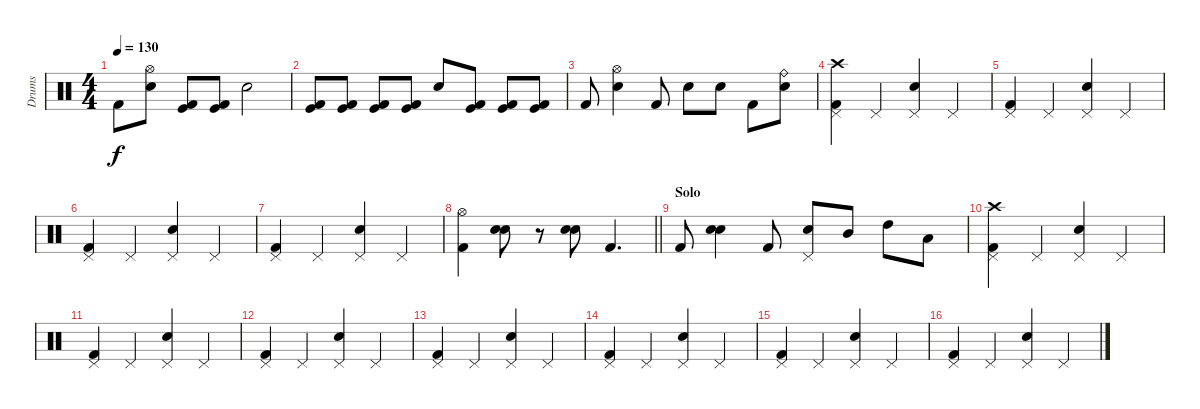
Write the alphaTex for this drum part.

\track ("Drums" "Drums") {instrument percussion}
\staff {score}
\articulation defaults
\ts (4 4)
\tempo 130
\clef neutral
\ks c "Kick (hit) 2".8{dy f}
("Snare (hit) 2" "Hi-Hat (open)").8 ("Kick (hit) 2" "Kick (hit)").8 ("Kick (hit) 2" "Kick (hit)").8 "Snare (hit) 2".2 |
("Kick (hit) 2" "Kick (hit)").8 ("Kick (hit) 2" "Kick (hit)").8 ("Kick (hit) 2" "Kick (hit)").8 ("Kick (hit) 2" "Kick (hit)").8 "Snare (hit) 2".8 ("Kick (hit) 2" "Kick (hit)").8 ("Kick (hit) 2" "Kick (hit)").8 ("Kick (hit) 2" "Kick (hit)").8 |
"Kick (hit) 2".8 ("Snare (hit) 2" "Hi-Hat (open)").4 "Kick (hit) 2".8 "Snare (hit) 2".8 "Snare (hit) 2".8 "Kick (hit) 2".8 ("Snare (hit) 2" "Ride (bell)").8 |
("Pedal Hi-Hat (hit)" "Crash high (hit)" "Kick (hit) 2").4 "Pedal Hi-Hat (hit)".4 ("Pedal Hi-Hat (hit)" "Snare (hit) 2").4 "Pedal Hi-Hat (hit)".4 |
("Pedal Hi-Hat (hit)" "Kick (hit) 2").4 "Pedal Hi-Hat (hit)".4 ("Pedal Hi-Hat (hit)" "Snare (hit) 2").4 "Pedal Hi-Hat (hit)".4 |
("Pedal Hi-Hat (hit)" "Kick (hit) 2").4 "Pedal Hi-Hat (hit)".4 ("Pedal Hi-Hat (hit)" "Snare (hit) 2").4 "Pedal Hi-Hat (hit)".4 |
("Pedal Hi-Hat (hit)" "Kick (hit) 2").4 "Pedal Hi-Hat (hit)".4 ("Pedal Hi-Hat (hit)" "Snare (hit) 2").4 "Pedal Hi-Hat (hit)".4 |
\barLineRight lightlight
("Hi-Hat (open)" "Kick (hit) 2").4 ("Electric Snare (hit)" "Snare (hit) 2").8 r.8 ("Electric Snare (hit)" "Snare (hit) 2").8 "Kick (hit) 2".4{d} |
\section ("" "Solo")
"Kick (hit) 2".8 ("Electric Snare (hit)" "Snare (hit) 2").4 "Kick (hit) 2".8 ("Pedal Hi-Hat (hit)" "Snare (hit) 2").8 "Mid Tom (hit)".8 "High Tom (hit)".8 "Low Tom (hit)".8 |
("Pedal Hi-Hat (hit)" "Crash high (hit)" "Kick (hit) 2").4 "Pedal Hi-Hat (hit)".4 ("Pedal Hi-Hat (hit)" "Snare (hit) 2").4 "Pedal Hi-Hat (hit)".4 |
("Pedal Hi-Hat (hit)" "Kick (hit) 2").4 "Pedal Hi-Hat (hit)".4 ("Pedal Hi-Hat (hit)" "Snare (hit) 2").4 "Pedal Hi-Hat (hit)".4 |
("Pedal Hi-Hat (hit)" "Kick (hit) 2").4 "Pedal Hi-Hat (hit)".4 ("Pedal Hi-Hat (hit)" "Snare (hit) 2").4 "Pedal Hi-Hat (hit)".4 |
("Pedal Hi-Hat (hit)" "Kick (hit) 2").4 "Pedal Hi-Hat (hit)".4 ("Pedal Hi-Hat (hit)" "Snare (hit) 2").4 "Pedal Hi-Hat (hit)".4 |
("Pedal Hi-Hat (hit)" "Kick (hit) 2").4 "Pedal Hi-Hat (hit)".4 ("Pedal Hi-Hat (hit)" "Snare (hit) 2").4 "Pedal Hi-Hat (hit)".4 |
("Pedal Hi-Hat (hit)" "Kick (hit) 2").4 "Pedal Hi-Hat (hit)".4 ("Pedal Hi-Hat (hit)" "Snare (hit) 2").4 "Pedal Hi-Hat (hit)".4 |
("Pedal Hi-Hat (hit)" "Kick (hit) 2").4 "Pedal Hi-Hat (hit)".4 ("Pedal Hi-Hat (hit)" "Snare (hit) 2").4 "Pedal Hi-Hat (hit)".4
